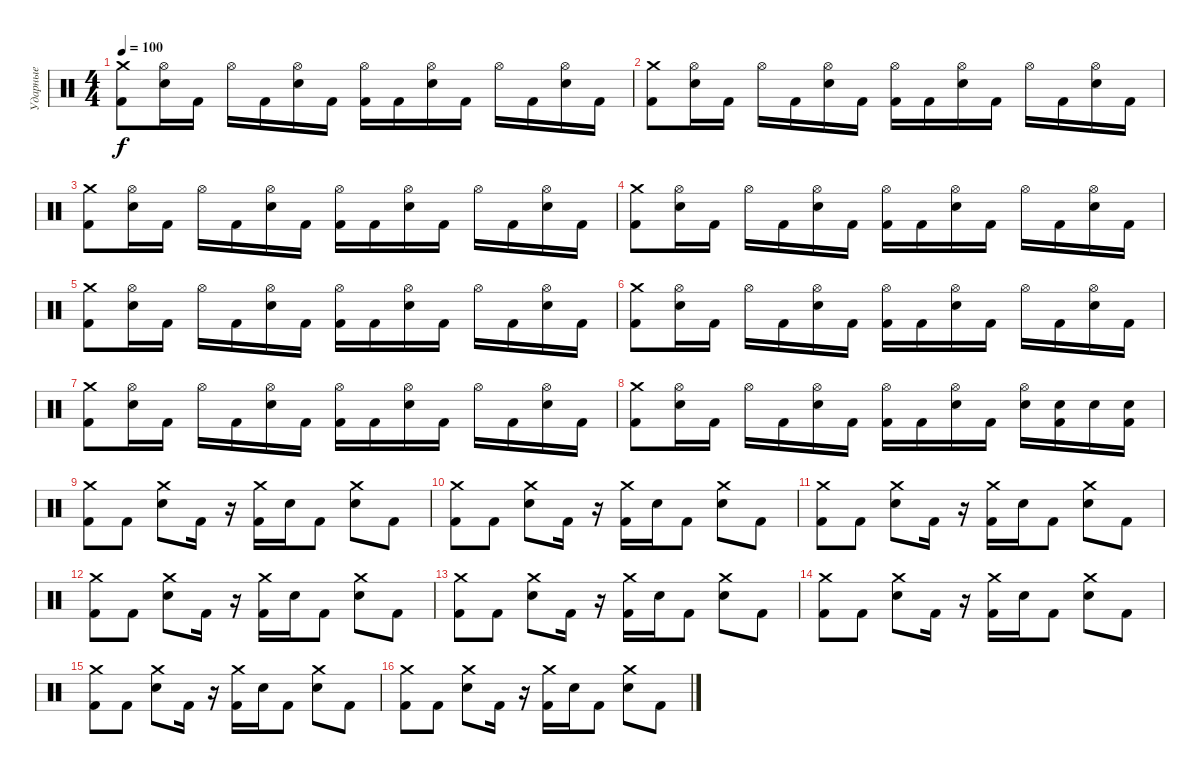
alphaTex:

\track ("Ударные" "Ударные") {instrument percussion}
\staff {score}
\articulation defaults
\ts (4 4)
\tempo 100
\clef neutral
\ks c
("Crash medium (hit)" "Kick (hit) 2").8{dy f} ("Hi-Hat (open)" "Electric Snare (hit)").16 "Kick (hit) 2".16 "Hi-Hat (open)".16 "Kick (hit) 2".16 ("Hi-Hat (open)" "Electric Snare (hit)").16 "Kick (hit) 2".16 ("Hi-Hat (open)" "Kick (hit) 2").16 "Kick (hit) 2".16 ("Hi-Hat (open)" "Electric Snare (hit)").16 "Kick (hit) 2".16 "Hi-Hat (open)".16 "Kick (hit) 2".16 ("Hi-Hat (open)" "Electric Snare (hit)").16 "Kick (hit) 2".16 |
("Crash medium (hit)" "Kick (hit) 2").8 ("Hi-Hat (open)" "Electric Snare (hit)").16 "Kick (hit) 2".16 "Hi-Hat (open)".16 "Kick (hit) 2".16 ("Hi-Hat (open)" "Electric Snare (hit)").16 "Kick (hit) 2".16 ("Hi-Hat (open)" "Kick (hit) 2").16 "Kick (hit) 2".16 ("Hi-Hat (open)" "Electric Snare (hit)").16 "Kick (hit) 2".16 "Hi-Hat (open)".16 "Kick (hit) 2".16 ("Hi-Hat (open)" "Electric Snare (hit)").16 "Kick (hit) 2".16 |
("Crash medium (hit)" "Kick (hit) 2").8 ("Hi-Hat (open)" "Electric Snare (hit)").16 "Kick (hit) 2".16 "Hi-Hat (open)".16 "Kick (hit) 2".16 ("Hi-Hat (open)" "Electric Snare (hit)").16 "Kick (hit) 2".16 ("Hi-Hat (open)" "Kick (hit) 2").16 "Kick (hit) 2".16 ("Hi-Hat (open)" "Electric Snare (hit)").16 "Kick (hit) 2".16 "Hi-Hat (open)".16 "Kick (hit) 2".16 ("Hi-Hat (open)" "Electric Snare (hit)").16 "Kick (hit) 2".16 |
("Crash medium (hit)" "Kick (hit) 2").8 ("Hi-Hat (open)" "Electric Snare (hit)").16 "Kick (hit) 2".16 "Hi-Hat (open)".16 "Kick (hit) 2".16 ("Hi-Hat (open)" "Electric Snare (hit)").16 "Kick (hit) 2".16 ("Hi-Hat (open)" "Kick (hit) 2").16 "Kick (hit) 2".16 ("Hi-Hat (open)" "Electric Snare (hit)").16 "Kick (hit) 2".16 "Hi-Hat (open)".16 "Kick (hit) 2".16 ("Hi-Hat (open)" "Electric Snare (hit)").16 "Kick (hit) 2".16 |
("Crash medium (hit)" "Kick (hit) 2").8 ("Hi-Hat (open)" "Electric Snare (hit)").16 "Kick (hit) 2".16 "Hi-Hat (open)".16 "Kick (hit) 2".16 ("Hi-Hat (open)" "Electric Snare (hit)").16 "Kick (hit) 2".16 ("Hi-Hat (open)" "Kick (hit) 2").16 "Kick (hit) 2".16 ("Hi-Hat (open)" "Electric Snare (hit)").16 "Kick (hit) 2".16 "Hi-Hat (open)".16 "Kick (hit) 2".16 ("Hi-Hat (open)" "Electric Snare (hit)").16 "Kick (hit) 2".16 |
("Crash medium (hit)" "Kick (hit) 2").8 ("Hi-Hat (open)" "Electric Snare (hit)").16 "Kick (hit) 2".16 "Hi-Hat (open)".16 "Kick (hit) 2".16 ("Hi-Hat (open)" "Electric Snare (hit)").16 "Kick (hit) 2".16 ("Hi-Hat (open)" "Kick (hit) 2").16 "Kick (hit) 2".16 ("Hi-Hat (open)" "Electric Snare (hit)").16 "Kick (hit) 2".16 "Hi-Hat (open)".16 "Kick (hit) 2".16 ("Hi-Hat (open)" "Electric Snare (hit)").16 "Kick (hit) 2".16 |
("Crash medium (hit)" "Kick (hit) 2").8 ("Hi-Hat (open)" "Electric Snare (hit)").16 "Kick (hit) 2".16 "Hi-Hat (open)".16 "Kick (hit) 2".16 ("Hi-Hat (open)" "Electric Snare (hit)").16 "Kick (hit) 2".16 ("Hi-Hat (open)" "Kick (hit) 2").16 "Kick (hit) 2".16 ("Hi-Hat (open)" "Electric Snare (hit)").16 "Kick (hit) 2".16 "Hi-Hat (open)".16 "Kick (hit) 2".16 ("Hi-Hat (open)" "Electric Snare (hit)").16 "Kick (hit) 2".16 |
("Crash medium (hit)" "Kick (hit) 2").8 ("Hi-Hat (open)" "Electric Snare (hit)").16 "Kick (hit) 2".16 "Hi-Hat (open)".16 "Kick (hit) 2".16 ("Hi-Hat (open)" "Electric Snare (hit)").16 "Kick (hit) 2".16 ("Hi-Hat (open)" "Kick (hit) 2").16 "Kick (hit) 2".16 ("Hi-Hat (open)" "Electric Snare (hit)").16 "Kick (hit) 2".16 ("Hi-Hat (open)" "Electric Snare (hit)").16 ("Electric Snare (hit)" "Kick (hit) 2").16 "Electric Snare (hit)".16 ("Electric Snare (hit)" "Kick (hit) 2").16 |
("Crash medium (hit)" "Kick (hit) 2").8 "Kick (hit) 2".8 ("Crash medium (hit)" "Electric Snare (hit)").8 "Kick (hit) 2".16 r.16 ("Crash medium (hit)" "Kick (hit) 2").16 "Electric Snare (hit)".16 "Kick (hit) 2".8 ("Crash medium (hit)" "Electric Snare (hit)").8 "Kick (hit) 2".8 |
("Crash medium (hit)" "Kick (hit) 2").8 "Kick (hit) 2".8 ("Crash medium (hit)" "Electric Snare (hit)").8 "Kick (hit) 2".16 r.16 ("Crash medium (hit)" "Kick (hit) 2").16 "Electric Snare (hit)".16 "Kick (hit) 2".8 ("Crash medium (hit)" "Electric Snare (hit)").8 "Kick (hit) 2".8 |
("Crash medium (hit)" "Kick (hit) 2").8 "Kick (hit) 2".8 ("Crash medium (hit)" "Electric Snare (hit)").8 "Kick (hit) 2".16 r.16 ("Crash medium (hit)" "Kick (hit) 2").16 "Electric Snare (hit)".16 "Kick (hit) 2".8 ("Crash medium (hit)" "Electric Snare (hit)").8 "Kick (hit) 2".8 |
("Crash medium (hit)" "Kick (hit) 2").8 "Kick (hit) 2".8 ("Crash medium (hit)" "Electric Snare (hit)").8 "Kick (hit) 2".16 r.16 ("Crash medium (hit)" "Kick (hit) 2").16 "Electric Snare (hit)".16 "Kick (hit) 2".8 ("Crash medium (hit)" "Electric Snare (hit)").8 "Kick (hit) 2".8 |
("Crash medium (hit)" "Kick (hit) 2").8 "Kick (hit) 2".8 ("Crash medium (hit)" "Electric Snare (hit)").8 "Kick (hit) 2".16 r.16 ("Crash medium (hit)" "Kick (hit) 2").16 "Electric Snare (hit)".16 "Kick (hit) 2".8 ("Crash medium (hit)" "Electric Snare (hit)").8 "Kick (hit) 2".8 |
("Crash medium (hit)" "Kick (hit) 2").8 "Kick (hit) 2".8 ("Crash medium (hit)" "Electric Snare (hit)").8 "Kick (hit) 2".16 r.16 ("Crash medium (hit)" "Kick (hit) 2").16 "Electric Snare (hit)".16 "Kick (hit) 2".8 ("Crash medium (hit)" "Electric Snare (hit)").8 "Kick (hit) 2".8 |
("Crash medium (hit)" "Kick (hit) 2").8 "Kick (hit) 2".8 ("Crash medium (hit)" "Electric Snare (hit)").8 "Kick (hit) 2".16 r.16 ("Crash medium (hit)" "Kick (hit) 2").16 "Electric Snare (hit)".16 "Kick (hit) 2".8 ("Crash medium (hit)" "Electric Snare (hit)").8 "Kick (hit) 2".8 |
("Crash medium (hit)" "Kick (hit) 2").8 "Kick (hit) 2".8 ("Crash medium (hit)" "Electric Snare (hit)").8 "Kick (hit) 2".16 r.16 ("Crash medium (hit)" "Kick (hit) 2").16 "Electric Snare (hit)".16 "Kick (hit) 2".8 ("Crash medium (hit)" "Electric Snare (hit)").8 "Kick (hit) 2".8
